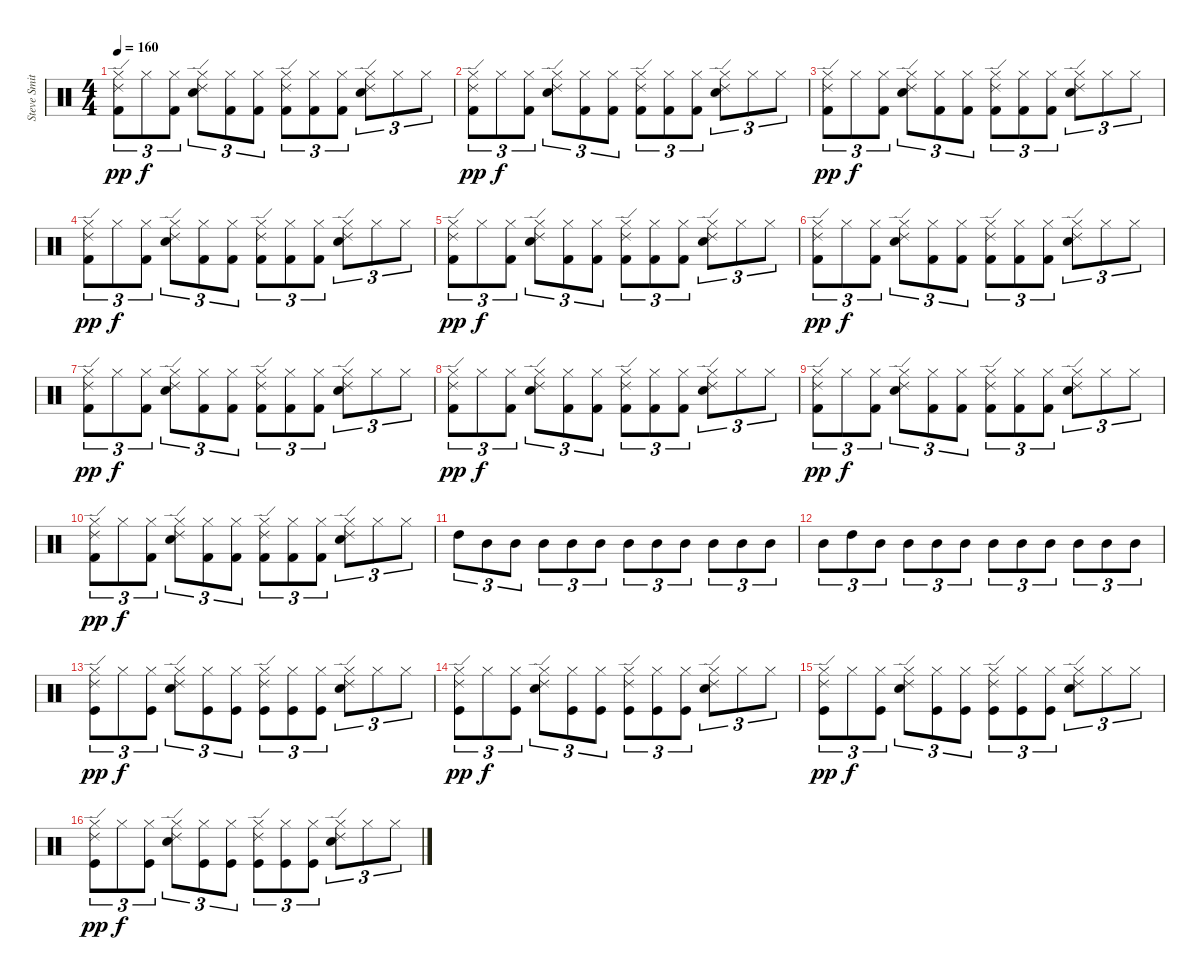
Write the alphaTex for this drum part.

\track ("Steve Smith" "Steve Smit") {instrument percussion}
\staff {score}
\articulation defaults
\ts (4 4)
\tempo 160
\clef neutral
\ks c
("Hi-Hat (closed)" "Ride (edge) 2" "Kick (hit) 2").8{tu (3 2) dy pp} "Hi-Hat (closed)".8{tu (3 2) dy f} ("Hi-Hat (closed)" "Kick (hit) 2").8{tu (3 2)} ("Hi-Hat (closed)" "Ride (edge) 2" "Snare (hit) 2").8{tu (3 2)} ("Hi-Hat (closed)" "Kick (hit) 2").8{tu (3 2)} ("Hi-Hat (closed)" "Kick (hit) 2").8{tu (3 2)} ("Hi-Hat (closed)" "Ride (edge) 2" "Kick (hit) 2").8{tu (3 2)} ("Hi-Hat (closed)" "Kick (hit) 2").8{tu (3 2)} ("Hi-Hat (closed)" "Kick (hit) 2").8{tu (3 2)} ("Hi-Hat (closed)" "Ride (edge) 2" "Snare (hit) 2").8{tu (3 2)} "Hi-Hat (closed)".8{tu (3 2)} "Hi-Hat (closed)".8{tu (3 2)} |
("Hi-Hat (closed)" "Ride (edge) 2" "Kick (hit) 2").8{tu (3 2) dy pp} "Hi-Hat (closed)".8{tu (3 2) dy f} ("Hi-Hat (closed)" "Kick (hit) 2").8{tu (3 2)} ("Hi-Hat (closed)" "Ride (edge) 2" "Snare (hit) 2").8{tu (3 2)} ("Hi-Hat (closed)" "Kick (hit) 2").8{tu (3 2)} ("Hi-Hat (closed)" "Kick (hit) 2").8{tu (3 2)} ("Hi-Hat (closed)" "Ride (edge) 2" "Kick (hit) 2").8{tu (3 2)} ("Hi-Hat (closed)" "Kick (hit) 2").8{tu (3 2)} ("Hi-Hat (closed)" "Kick (hit) 2").8{tu (3 2)} ("Hi-Hat (closed)" "Ride (edge) 2" "Snare (hit) 2").8{tu (3 2)} "Hi-Hat (closed)".8{tu (3 2)} "Hi-Hat (closed)".8{tu (3 2)} |
("Hi-Hat (closed)" "Ride (edge) 2" "Kick (hit) 2").8{tu (3 2) dy pp} "Hi-Hat (closed)".8{tu (3 2) dy f} ("Hi-Hat (closed)" "Kick (hit) 2").8{tu (3 2)} ("Hi-Hat (closed)" "Ride (edge) 2" "Snare (hit) 2").8{tu (3 2)} ("Hi-Hat (closed)" "Kick (hit) 2").8{tu (3 2)} ("Hi-Hat (closed)" "Kick (hit) 2").8{tu (3 2)} ("Hi-Hat (closed)" "Ride (edge) 2" "Kick (hit) 2").8{tu (3 2)} ("Hi-Hat (closed)" "Kick (hit) 2").8{tu (3 2)} ("Hi-Hat (closed)" "Kick (hit) 2").8{tu (3 2)} ("Hi-Hat (closed)" "Ride (edge) 2" "Snare (hit) 2").8{tu (3 2)} "Hi-Hat (closed)".8{tu (3 2)} "Hi-Hat (closed)".8{tu (3 2)} |
("Hi-Hat (closed)" "Ride (edge) 2" "Kick (hit) 2").8{tu (3 2) dy pp} "Hi-Hat (closed)".8{tu (3 2) dy f} ("Hi-Hat (closed)" "Kick (hit) 2").8{tu (3 2)} ("Hi-Hat (closed)" "Ride (edge) 2" "Snare (hit) 2").8{tu (3 2)} ("Hi-Hat (closed)" "Kick (hit) 2").8{tu (3 2)} ("Hi-Hat (closed)" "Kick (hit) 2").8{tu (3 2)} ("Hi-Hat (closed)" "Ride (edge) 2" "Kick (hit) 2").8{tu (3 2)} ("Hi-Hat (closed)" "Kick (hit) 2").8{tu (3 2)} ("Hi-Hat (closed)" "Kick (hit) 2").8{tu (3 2)} ("Hi-Hat (closed)" "Ride (edge) 2" "Snare (hit) 2").8{tu (3 2)} "Hi-Hat (closed)".8{tu (3 2)} "Hi-Hat (closed)".8{tu (3 2)} |
("Hi-Hat (closed)" "Ride (edge) 2" "Kick (hit) 2").8{tu (3 2) dy pp} "Hi-Hat (closed)".8{tu (3 2) dy f} ("Hi-Hat (closed)" "Kick (hit) 2").8{tu (3 2)} ("Hi-Hat (closed)" "Ride (edge) 2" "Snare (hit) 2").8{tu (3 2)} ("Hi-Hat (closed)" "Kick (hit) 2").8{tu (3 2)} ("Hi-Hat (closed)" "Kick (hit) 2").8{tu (3 2)} ("Hi-Hat (closed)" "Ride (edge) 2" "Kick (hit) 2").8{tu (3 2)} ("Hi-Hat (closed)" "Kick (hit) 2").8{tu (3 2)} ("Hi-Hat (closed)" "Kick (hit) 2").8{tu (3 2)} ("Hi-Hat (closed)" "Ride (edge) 2" "Snare (hit) 2").8{tu (3 2)} "Hi-Hat (closed)".8{tu (3 2)} "Hi-Hat (closed)".8{tu (3 2)} |
("Hi-Hat (closed)" "Ride (edge) 2" "Kick (hit) 2").8{tu (3 2) dy pp} "Hi-Hat (closed)".8{tu (3 2) dy f} ("Hi-Hat (closed)" "Kick (hit) 2").8{tu (3 2)} ("Hi-Hat (closed)" "Ride (edge) 2" "Snare (hit) 2").8{tu (3 2)} ("Hi-Hat (closed)" "Kick (hit) 2").8{tu (3 2)} ("Hi-Hat (closed)" "Kick (hit) 2").8{tu (3 2)} ("Hi-Hat (closed)" "Ride (edge) 2" "Kick (hit) 2").8{tu (3 2)} ("Hi-Hat (closed)" "Kick (hit) 2").8{tu (3 2)} ("Hi-Hat (closed)" "Kick (hit) 2").8{tu (3 2)} ("Hi-Hat (closed)" "Ride (edge) 2" "Snare (hit) 2").8{tu (3 2)} "Hi-Hat (closed)".8{tu (3 2)} "Hi-Hat (closed)".8{tu (3 2)} |
("Hi-Hat (closed)" "Ride (edge) 2" "Kick (hit) 2").8{tu (3 2) dy pp} "Hi-Hat (closed)".8{tu (3 2) dy f} ("Hi-Hat (closed)" "Kick (hit) 2").8{tu (3 2)} ("Hi-Hat (closed)" "Ride (edge) 2" "Snare (hit) 2").8{tu (3 2)} ("Hi-Hat (closed)" "Kick (hit) 2").8{tu (3 2)} ("Hi-Hat (closed)" "Kick (hit) 2").8{tu (3 2)} ("Hi-Hat (closed)" "Ride (edge) 2" "Kick (hit) 2").8{tu (3 2)} ("Hi-Hat (closed)" "Kick (hit) 2").8{tu (3 2)} ("Hi-Hat (closed)" "Kick (hit) 2").8{tu (3 2)} ("Hi-Hat (closed)" "Ride (edge) 2" "Snare (hit) 2").8{tu (3 2)} "Hi-Hat (closed)".8{tu (3 2)} "Hi-Hat (closed)".8{tu (3 2)} |
("Hi-Hat (closed)" "Ride (edge) 2" "Kick (hit) 2").8{tu (3 2) dy pp} "Hi-Hat (closed)".8{tu (3 2) dy f} ("Hi-Hat (closed)" "Kick (hit) 2").8{tu (3 2)} ("Hi-Hat (closed)" "Ride (edge) 2" "Snare (hit) 2").8{tu (3 2)} ("Hi-Hat (closed)" "Kick (hit) 2").8{tu (3 2)} ("Hi-Hat (closed)" "Kick (hit) 2").8{tu (3 2)} ("Hi-Hat (closed)" "Ride (edge) 2" "Kick (hit) 2").8{tu (3 2)} ("Hi-Hat (closed)" "Kick (hit) 2").8{tu (3 2)} ("Hi-Hat (closed)" "Kick (hit) 2").8{tu (3 2)} ("Hi-Hat (closed)" "Ride (edge) 2" "Snare (hit) 2").8{tu (3 2)} "Hi-Hat (closed)".8{tu (3 2)} "Hi-Hat (closed)".8{tu (3 2)} |
("Hi-Hat (closed)" "Ride (edge) 2" "Kick (hit) 2").8{tu (3 2) dy pp} "Hi-Hat (closed)".8{tu (3 2) dy f} ("Hi-Hat (closed)" "Kick (hit) 2").8{tu (3 2)} ("Hi-Hat (closed)" "Ride (edge) 2" "Snare (hit) 2").8{tu (3 2)} ("Hi-Hat (closed)" "Kick (hit) 2").8{tu (3 2)} ("Hi-Hat (closed)" "Kick (hit) 2").8{tu (3 2)} ("Hi-Hat (closed)" "Ride (edge) 2" "Kick (hit) 2").8{tu (3 2)} ("Hi-Hat (closed)" "Kick (hit) 2").8{tu (3 2)} ("Hi-Hat (closed)" "Kick (hit) 2").8{tu (3 2)} ("Hi-Hat (closed)" "Ride (edge) 2" "Snare (hit) 2").8{tu (3 2)} "Hi-Hat (closed)".8{tu (3 2)} "Hi-Hat (closed)".8{tu (3 2)} |
("Hi-Hat (closed)" "Ride (edge) 2" "Kick (hit) 2").8{tu (3 2) dy pp} "Hi-Hat (closed)".8{tu (3 2) dy f} ("Hi-Hat (closed)" "Kick (hit) 2").8{tu (3 2)} ("Hi-Hat (closed)" "Ride (edge) 2" "Snare (hit) 2").8{tu (3 2)} ("Hi-Hat (closed)" "Kick (hit) 2").8{tu (3 2)} ("Hi-Hat (closed)" "Kick (hit) 2").8{tu (3 2)} ("Hi-Hat (closed)" "Ride (edge) 2" "Kick (hit) 2").8{tu (3 2)} ("Hi-Hat (closed)" "Kick (hit) 2").8{tu (3 2)} ("Hi-Hat (closed)" "Kick (hit) 2").8{tu (3 2)} ("Hi-Hat (closed)" "Ride (edge) 2" "Snare (hit) 2").8{tu (3 2)} "Hi-Hat (closed)".8{tu (3 2)} "Hi-Hat (closed)".8{tu (3 2)} |
"High Tom (hit)".8{tu (3 2)} "Mid Tom (hit)".8{tu (3 2)} "Mid Tom (hit)".8{tu (3 2)} "Mid Tom (hit)".8{tu (3 2)} "Mid Tom (hit)".8{tu (3 2)} "Mid Tom (hit)".8{tu (3 2)} "Mid Tom (hit)".8{tu (3 2)} "Mid Tom (hit)".8{tu (3 2)} "Mid Tom (hit)".8{tu (3 2)} "Mid Tom (hit)".8{tu (3 2)} "Mid Tom (hit)".8{tu (3 2)} "Mid Tom (hit)".8{tu (3 2)} |
"Mid Tom (hit)".8{tu (3 2)} "High Tom (hit)".8{tu (3 2)} "Mid Tom (hit)".8{tu (3 2)} "Mid Tom (hit)".8{tu (3 2)} "Mid Tom (hit)".8{tu (3 2)} "Mid Tom (hit)".8{tu (3 2)} "Mid Tom (hit)".8{tu (3 2)} "Mid Tom (hit)".8{tu (3 2)} "Mid Tom (hit)".8{tu (3 2)} "Mid Tom (hit)".8{tu (3 2)} "Mid Tom (hit)".8{tu (3 2)} "Mid Tom (hit)".8{tu (3 2)} |
("Hi-Hat (closed)" "Ride (edge) 2" "Kick (hit)").8{tu (3 2) dy pp} "Hi-Hat (closed)".8{tu (3 2) dy f} ("Hi-Hat (closed)" "Kick (hit)").8{tu (3 2)} ("Hi-Hat (closed)" "Ride (edge) 2" "Snare (hit) 2").8{tu (3 2)} ("Hi-Hat (closed)" "Kick (hit)").8{tu (3 2)} ("Hi-Hat (closed)" "Kick (hit)").8{tu (3 2)} ("Hi-Hat (closed)" "Ride (edge) 2" "Kick (hit)").8{tu (3 2)} ("Hi-Hat (closed)" "Kick (hit)").8{tu (3 2)} ("Hi-Hat (closed)" "Kick (hit)").8{tu (3 2)} ("Hi-Hat (closed)" "Ride (edge) 2" "Snare (hit) 2").8{tu (3 2)} "Hi-Hat (closed)".8{tu (3 2)} "Hi-Hat (closed)".8{tu (3 2)} |
("Hi-Hat (closed)" "Ride (edge) 2" "Kick (hit)").8{tu (3 2) dy pp} "Hi-Hat (closed)".8{tu (3 2) dy f} ("Hi-Hat (closed)" "Kick (hit)").8{tu (3 2)} ("Hi-Hat (closed)" "Ride (edge) 2" "Snare (hit) 2").8{tu (3 2)} ("Hi-Hat (closed)" "Kick (hit)").8{tu (3 2)} ("Hi-Hat (closed)" "Kick (hit)").8{tu (3 2)} ("Hi-Hat (closed)" "Ride (edge) 2" "Kick (hit)").8{tu (3 2)} ("Hi-Hat (closed)" "Kick (hit)").8{tu (3 2)} ("Hi-Hat (closed)" "Kick (hit)").8{tu (3 2)} ("Hi-Hat (closed)" "Ride (edge) 2" "Snare (hit) 2").8{tu (3 2)} "Hi-Hat (closed)".8{tu (3 2)} "Hi-Hat (closed)".8{tu (3 2)} |
("Hi-Hat (closed)" "Ride (edge) 2" "Kick (hit)").8{tu (3 2) dy pp} "Hi-Hat (closed)".8{tu (3 2) dy f} ("Hi-Hat (closed)" "Kick (hit)").8{tu (3 2)} ("Hi-Hat (closed)" "Ride (edge) 2" "Snare (hit) 2").8{tu (3 2)} ("Hi-Hat (closed)" "Kick (hit)").8{tu (3 2)} ("Hi-Hat (closed)" "Kick (hit)").8{tu (3 2)} ("Hi-Hat (closed)" "Ride (edge) 2" "Kick (hit)").8{tu (3 2)} ("Hi-Hat (closed)" "Kick (hit)").8{tu (3 2)} ("Hi-Hat (closed)" "Kick (hit)").8{tu (3 2)} ("Hi-Hat (closed)" "Ride (edge) 2" "Snare (hit) 2").8{tu (3 2)} "Hi-Hat (closed)".8{tu (3 2)} "Hi-Hat (closed)".8{tu (3 2)} |
("Hi-Hat (closed)" "Ride (edge) 2" "Kick (hit)").8{tu (3 2) dy pp} "Hi-Hat (closed)".8{tu (3 2) dy f} ("Hi-Hat (closed)" "Kick (hit)").8{tu (3 2)} ("Hi-Hat (closed)" "Ride (edge) 2" "Snare (hit) 2").8{tu (3 2)} ("Hi-Hat (closed)" "Kick (hit)").8{tu (3 2)} ("Hi-Hat (closed)" "Kick (hit)").8{tu (3 2)} ("Hi-Hat (closed)" "Ride (edge) 2" "Kick (hit)").8{tu (3 2)} ("Hi-Hat (closed)" "Kick (hit)").8{tu (3 2)} ("Hi-Hat (closed)" "Kick (hit)").8{tu (3 2)} ("Hi-Hat (closed)" "Ride (edge) 2" "Snare (hit) 2").8{tu (3 2)} "Hi-Hat (closed)".8{tu (3 2)} "Hi-Hat (closed)".8{tu (3 2)}
